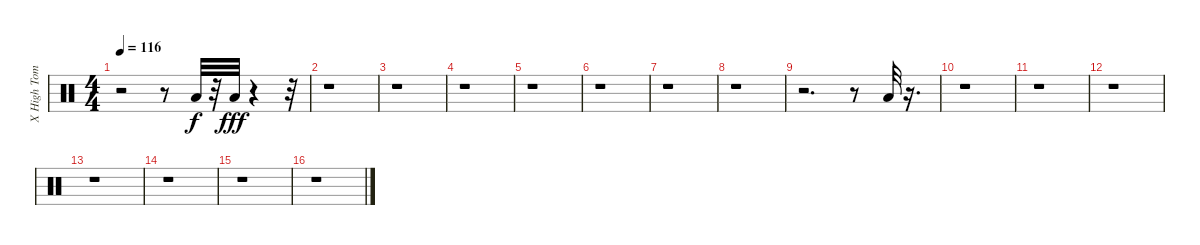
\track ("X High Tom          " "X High Tom") {instrument percussion}
\staff {score}
\articulation defaults
\ts (4 4)
\tempo 116
\clef neutral
\ks c
r.2{dy fff} r.8 "Low Tom (hit)".32{dy f} r.32 "Low Tom (hit)".32{dy fff} r.4 r.32 |
r.1 |
r.1 |
r.1 |
r.1 |
r.1 |
r.1 |
r.1 |
r.2{d} r.8 "Low Tom (hit)".32 r.16{d} |
r.1 |
r.1 |
r.1 |
r.1 |
r.1 |
r.1 |
r.1
